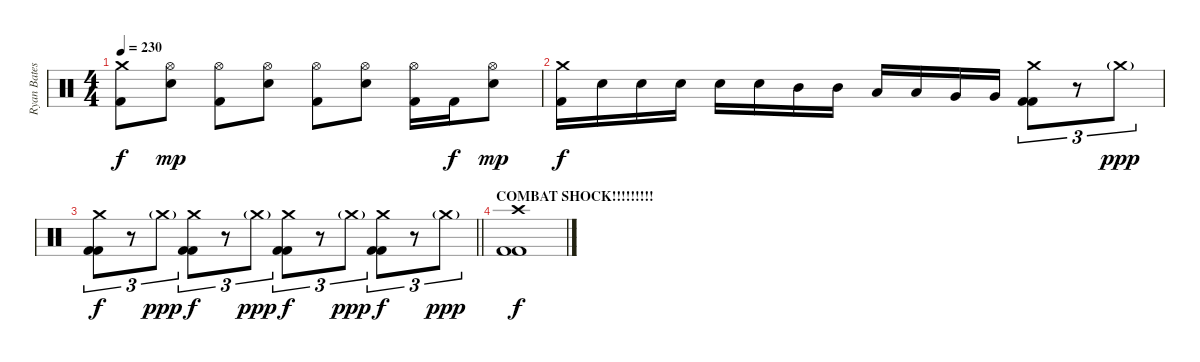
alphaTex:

\track ("Ryan Bates" "Ryan Bates") {instrument percussion}
\staff {score}
\articulation defaults
\ts (4 4)
\tempo 230
\clef neutral
\ks c
("Crash medium (hit)" "Kick (hit) 2").8{dy f} ("Hi-Hat (open)" "Electric Snare (hit)").8{dy mp} ("Hi-Hat (open)" "Kick (hit) 2").8 ("Hi-Hat (open)" "Electric Snare (hit)").8 ("Hi-Hat (open)" "Kick (hit) 2").8 ("Hi-Hat (open)" "Electric Snare (hit)").8 ("Hi-Hat (open)" "Kick (hit) 2").16 "Kick (hit) 2".16{dy f} ("Hi-Hat (open)" "Electric Snare (hit)").8{dy mp} |
("Crash medium (hit)" "Kick (hit) 2").16{dy f} "Electric Snare (hit)".16 "Electric Snare (hit)".16 "Electric Snare (hit)".16 "Electric Snare (hit)".16 "Electric Snare (hit)".16 "Mid Tom (hit)".16 "Mid Tom (hit)".16 "Low Tom (hit)".16 "Low Tom (hit)".16 "Very Low Tom (hit)".16 "Very Low Tom (hit)".16 ("Crash medium (hit)" "Kick (hit) 2" "Kick (hit) 2").8{tu (3 2)} r.8{tu (3 2)} "Crash medium (hit)"{g}.8{tu (3 2) dy ppp} |
\barLineRight lightlight
("Crash medium (hit)" "Kick (hit) 2" "Kick (hit) 2").8{tu (3 2) dy f} r.8{tu (3 2)} "Crash medium (hit)"{g}.8{tu (3 2) dy ppp} ("Crash medium (hit)" "Kick (hit) 2" "Kick (hit) 2").8{tu (3 2) dy f} r.8{tu (3 2)} "Crash medium (hit)"{g}.8{tu (3 2) dy ppp} ("Crash medium (hit)" "Kick (hit) 2" "Kick (hit) 2").8{tu (3 2) dy f} r.8{tu (3 2)} "Crash medium (hit)"{g}.8{tu (3 2) dy ppp} ("Crash medium (hit)" "Kick (hit) 2" "Kick (hit) 2").8{tu (3 2) dy f} r.8{tu (3 2)} "Crash medium (hit)"{g}.8{tu (3 2) dy ppp} |
\section ("" "COMBAT SHOCK!!!!!!!!!")
("Crash high (hit)" "Kick (hit) 2" "Kick (hit) 2").1{dy f}
